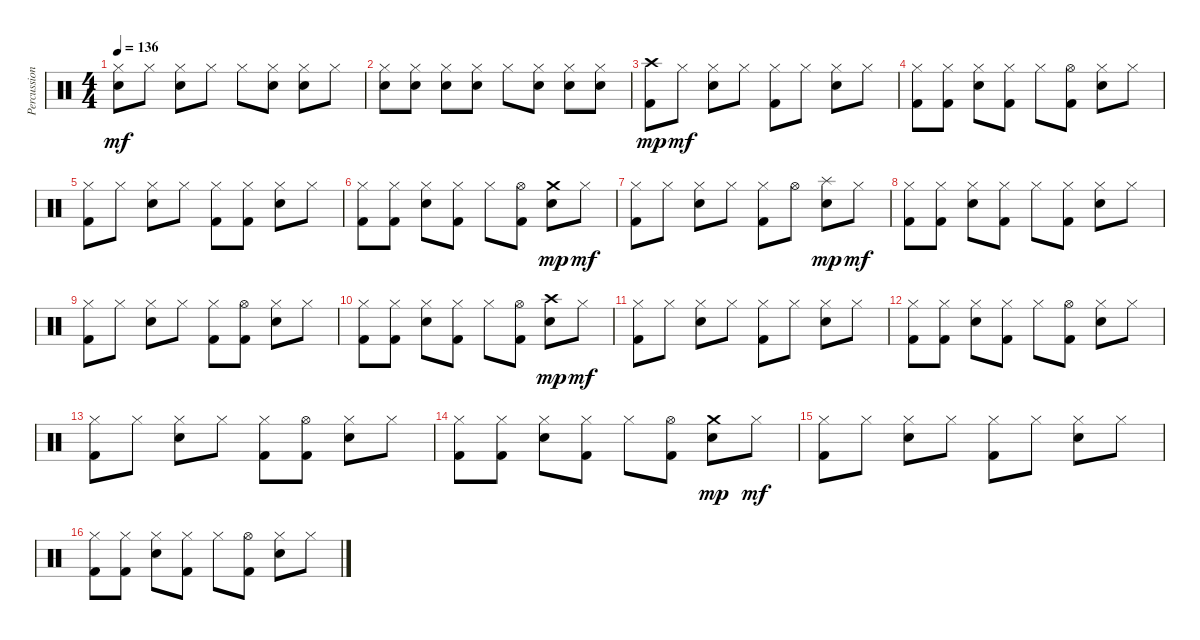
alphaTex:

\track ("Percussions" "Percussion") {instrument percussion}
\staff {score}
\articulation defaults
\ts (4 4)
\tempo 136
\clef neutral
\ks c
("Hi-Hat (closed)" "Electric Snare (hit)").8{dy mf} "Hi-Hat (closed)".8 ("Hi-Hat (closed)" "Electric Snare (hit)").8 "Hi-Hat (closed)".8 "Hi-Hat (closed)".8 ("Hi-Hat (closed)" "Electric Snare (hit)").8 ("Hi-Hat (closed)" "Electric Snare (hit)").8 "Hi-Hat (closed)".8 |
("Hi-Hat (closed)" "Electric Snare (hit)").8 ("Hi-Hat (closed)" "Electric Snare (hit)").8 ("Hi-Hat (closed)" "Electric Snare (hit)").8 ("Hi-Hat (closed)" "Electric Snare (hit)").8 "Hi-Hat (closed)".8 ("Hi-Hat (closed)" "Electric Snare (hit)").8 ("Hi-Hat (closed)" "Electric Snare (hit)").8 ("Hi-Hat (closed)" "Electric Snare (hit)").8 |
("Crash high (hit)" "Kick (hit) 2").8{dy mp} "Hi-Hat (closed)".8{dy mf} ("Hi-Hat (closed)" "Electric Snare (hit)").8 "Hi-Hat (closed)".8 ("Hi-Hat (closed)" "Kick (hit) 2").8 "Hi-Hat (closed)".8 ("Hi-Hat (closed)" "Electric Snare (hit)").8 "Hi-Hat (closed)".8 |
("Hi-Hat (closed)" "Kick (hit) 2").8 ("Hi-Hat (closed)" "Kick (hit) 2").8 ("Hi-Hat (closed)" "Electric Snare (hit)").8 ("Hi-Hat (closed)" "Kick (hit) 2").8 "Hi-Hat (closed)".8 ("Hi-Hat (open)" "Kick (hit) 2").8 ("Hi-Hat (closed)" "Electric Snare (hit)").8 "Hi-Hat (closed)".8 |
("Hi-Hat (closed)" "Kick (hit) 2").8 "Hi-Hat (closed)".8 ("Hi-Hat (closed)" "Electric Snare (hit)").8 "Hi-Hat (closed)".8 ("Hi-Hat (closed)" "Kick (hit) 2").8 ("Hi-Hat (closed)" "Kick (hit) 2").8 ("Hi-Hat (closed)" "Electric Snare (hit)").8 "Hi-Hat (closed)".8 |
("Hi-Hat (closed)" "Kick (hit) 2").8 ("Hi-Hat (closed)" "Kick (hit) 2").8 ("Hi-Hat (closed)" "Electric Snare (hit)").8 ("Hi-Hat (closed)" "Kick (hit) 2").8 "Hi-Hat (closed)".8 ("Hi-Hat (open)" "Kick (hit) 2").8 ("Crash medium (hit)" "Electric Snare (hit)").8{dy mp} "Hi-Hat (closed)".8{dy mf} |
("Hi-Hat (closed)" "Kick (hit) 2").8 "Hi-Hat (closed)".8 ("Hi-Hat (closed)" "Electric Snare (hit)").8 "Hi-Hat (closed)".8 ("Hi-Hat (closed)" "Kick (hit) 2").8 "Hi-Hat (open)".8 ("Splash (hit)" "Electric Snare (hit)").8{dy mp} "Hi-Hat (closed)".8{dy mf} |
("Hi-Hat (closed)" "Kick (hit) 2").8 ("Hi-Hat (closed)" "Kick (hit) 2").8 ("Hi-Hat (closed)" "Electric Snare (hit)").8 ("Hi-Hat (closed)" "Kick (hit) 2").8 "Hi-Hat (closed)".8 ("Hi-Hat (closed)" "Kick (hit) 2").8 ("Hi-Hat (closed)" "Electric Snare (hit)").8 "Hi-Hat (closed)".8 |
("Hi-Hat (closed)" "Kick (hit) 2").8 "Hi-Hat (closed)".8 ("Hi-Hat (closed)" "Electric Snare (hit)").8 "Hi-Hat (closed)".8 ("Hi-Hat (closed)" "Kick (hit) 2").8 ("Hi-Hat (open)" "Kick (hit) 2").8 ("Hi-Hat (closed)" "Electric Snare (hit)").8 "Hi-Hat (closed)".8 |
("Hi-Hat (closed)" "Kick (hit) 2").8 ("Hi-Hat (closed)" "Kick (hit) 2").8 ("Hi-Hat (closed)" "Electric Snare (hit)").8 ("Hi-Hat (closed)" "Kick (hit) 2").8 "Hi-Hat (closed)".8 ("Hi-Hat (open)" "Kick (hit) 2").8 ("Crash high (hit)" "Electric Snare (hit)").8{dy mp} "Hi-Hat (closed)".8{dy mf} |
("Hi-Hat (closed)" "Kick (hit) 2").8 "Hi-Hat (closed)".8 ("Hi-Hat (closed)" "Electric Snare (hit)").8 "Hi-Hat (closed)".8 ("Hi-Hat (closed)" "Kick (hit) 2").8 "Hi-Hat (closed)".8 ("Hi-Hat (closed)" "Electric Snare (hit)").8 "Hi-Hat (closed)".8 |
("Hi-Hat (closed)" "Kick (hit) 2").8 ("Hi-Hat (closed)" "Kick (hit) 2").8 ("Hi-Hat (closed)" "Electric Snare (hit)").8 ("Hi-Hat (closed)" "Kick (hit) 2").8 "Hi-Hat (closed)".8 ("Hi-Hat (open)" "Kick (hit) 2").8 ("Hi-Hat (closed)" "Electric Snare (hit)").8 "Hi-Hat (closed)".8 |
("Hi-Hat (closed)" "Kick (hit) 2").8 "Hi-Hat (closed)".8 ("Hi-Hat (closed)" "Electric Snare (hit)").8 "Hi-Hat (closed)".8 ("Hi-Hat (closed)" "Kick (hit) 2").8 ("Hi-Hat (open)" "Kick (hit) 2").8 ("Hi-Hat (closed)" "Electric Snare (hit)").8 "Hi-Hat (closed)".8 |
("Hi-Hat (closed)" "Kick (hit) 2").8 ("Hi-Hat (closed)" "Kick (hit) 2").8 ("Hi-Hat (closed)" "Electric Snare (hit)").8 ("Hi-Hat (closed)" "Kick (hit) 2").8 "Hi-Hat (closed)".8 ("Hi-Hat (open)" "Kick (hit) 2").8 ("Crash medium (hit)" "Electric Snare (hit)").8{dy mp} "Hi-Hat (closed)".8{dy mf} |
("Hi-Hat (closed)" "Kick (hit) 2").8 "Hi-Hat (closed)".8 ("Hi-Hat (closed)" "Electric Snare (hit)").8 "Hi-Hat (closed)".8 ("Hi-Hat (closed)" "Kick (hit) 2").8 "Hi-Hat (closed)".8 ("Hi-Hat (closed)" "Electric Snare (hit)").8 "Hi-Hat (closed)".8 |
("Hi-Hat (closed)" "Kick (hit) 2").8 ("Hi-Hat (closed)" "Kick (hit) 2").8 ("Hi-Hat (closed)" "Electric Snare (hit)").8 ("Hi-Hat (closed)" "Kick (hit) 2").8 "Hi-Hat (closed)".8 ("Hi-Hat (open)" "Kick (hit) 2").8 ("Hi-Hat (closed)" "Electric Snare (hit)").8 "Hi-Hat (closed)".8
